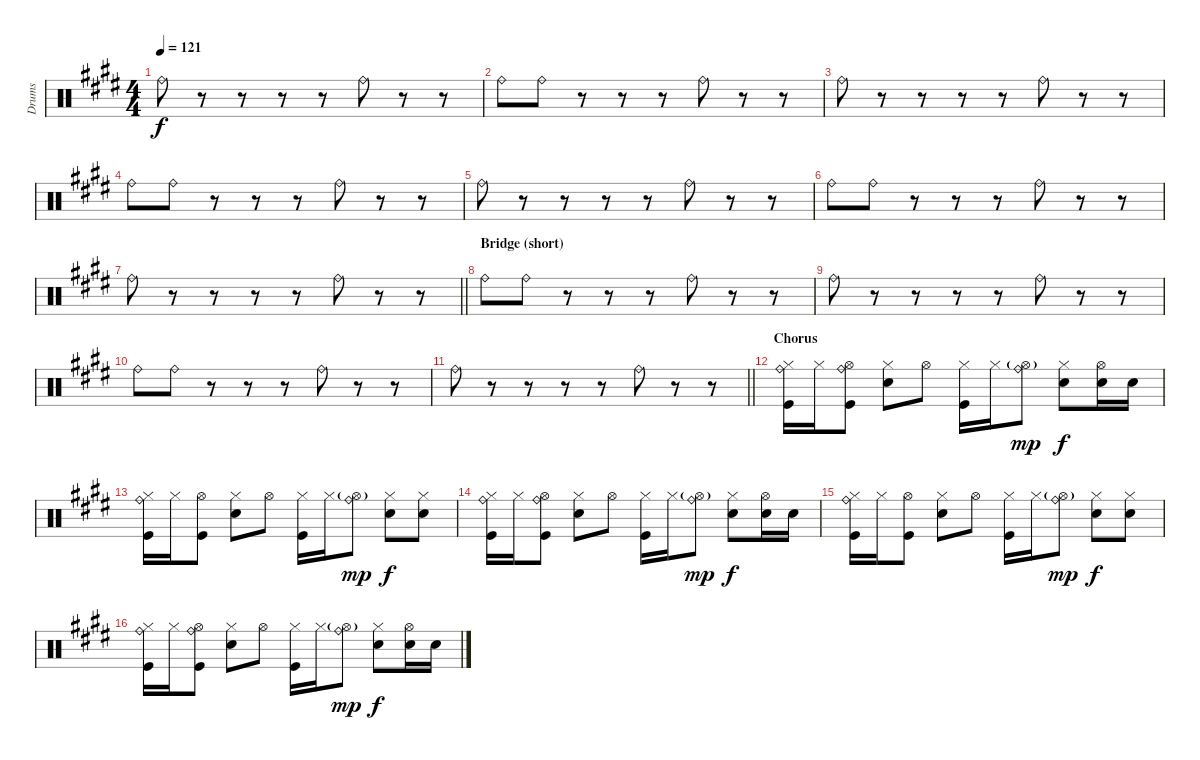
\track ("Drums" "Drums") {instrument percussion}
\staff {score}
\articulation defaults
\ts (4 4)
\tempo 121
\clef neutral
\ks c#minor "Ride (bell)".8{dy f}
r.8 r.8 r.8 r.8 "Ride (bell)".8 r.8 r.8 |
"Ride (bell)".8 "Ride (bell)".8 r.8 r.8 r.8 "Ride (bell)".8 r.8 r.8 |
"Ride (bell)".8 r.8 r.8 r.8 r.8 "Ride (bell)".8 r.8 r.8 |
"Ride (bell)".8 "Ride (bell)".8 r.8 r.8 r.8 "Ride (bell)".8 r.8 r.8 |
"Ride (bell)".8 r.8 r.8 r.8 r.8 "Ride (bell)".8 r.8 r.8 |
"Ride (bell)".8 "Ride (bell)".8 r.8 r.8 r.8 "Ride (bell)".8 r.8 r.8 |
\barLineRight lightlight "Ride (bell)".8
r.8 r.8 r.8 r.8 "Ride (bell)".8 r.8 r.8 |
\section ("" "Bridge (short)")
"Ride (bell)".8 "Ride (bell)".8 r.8 r.8 r.8 "Ride (bell)".8 r.8 r.8 |
"Ride (bell)".8 r.8 r.8 r.8 r.8 "Ride (bell)".8 r.8 r.8 |
"Ride (bell)".8 "Ride (bell)".8 r.8 r.8 r.8 "Ride (bell)".8 r.8 r.8 |
\barLineRight lightlight "Ride (bell)".8
r.8 r.8 r.8 r.8 "Ride (bell)".8 r.8 r.8 |
\section ("" "Chorus")
("Ride (bell)" "Hi-Hat (closed)" "Kick (hit)").16 "Hi-Hat (closed)".16 ("Ride (bell)" "Hi-Hat (open)" "Kick (hit)").8 ("Hi-Hat (closed)" "Electric Snare (hit)").8 "Hi-Hat (open)".8 ("Hi-Hat (closed)" "Kick (hit)").16 "Hi-Hat (closed)".16 ("Ride (bell)" "Hi-Hat (open)"{g}).8{dy mp} ("Hi-Hat (closed)" "Electric Snare (hit)").8{dy f} ("Hi-Hat (open)" "Electric Snare (hit)").16 "Electric Snare (hit)".16 |
("Ride (bell)" "Hi-Hat (closed)" "Kick (hit)").16 "Hi-Hat (closed)".16 ("Hi-Hat (open)" "Kick (hit)").8 ("Hi-Hat (closed)" "Electric Snare (hit)").8 "Hi-Hat (open)".8 ("Hi-Hat (closed)" "Kick (hit)").16 "Hi-Hat (closed)".16 ("Ride (bell)" "Hi-Hat (open)"{g}).8{dy mp} ("Hi-Hat (closed)" "Electric Snare (hit)").8{dy f} ("Hi-Hat (closed)" "Electric Snare (hit)").8 |
("Ride (bell)" "Hi-Hat (closed)" "Kick (hit)").16 "Hi-Hat (closed)".16 ("Ride (bell)" "Hi-Hat (open)" "Kick (hit)").8 ("Hi-Hat (closed)" "Electric Snare (hit)").8 "Hi-Hat (open)".8 ("Hi-Hat (closed)" "Kick (hit)").16 "Hi-Hat (closed)".16 ("Ride (bell)" "Hi-Hat (open)"{g}).8{dy mp} ("Hi-Hat (closed)" "Electric Snare (hit)").8{dy f} ("Hi-Hat (open)" "Electric Snare (hit)").16 "Electric Snare (hit)".16 |
("Ride (bell)" "Hi-Hat (closed)" "Kick (hit)").16 "Hi-Hat (closed)".16 ("Hi-Hat (open)" "Kick (hit)").8 ("Hi-Hat (closed)" "Electric Snare (hit)").8 "Hi-Hat (open)".8 ("Hi-Hat (closed)" "Kick (hit)").16 "Hi-Hat (closed)".16 ("Ride (bell)" "Hi-Hat (open)"{g}).8{dy mp} ("Hi-Hat (closed)" "Electric Snare (hit)").8{dy f} ("Hi-Hat (closed)" "Electric Snare (hit)").8 |
("Ride (bell)" "Hi-Hat (closed)" "Kick (hit)").16 "Hi-Hat (closed)".16 ("Ride (bell)" "Hi-Hat (open)" "Kick (hit)").8 ("Hi-Hat (closed)" "Electric Snare (hit)").8 "Hi-Hat (open)".8 ("Hi-Hat (closed)" "Kick (hit)").16 "Hi-Hat (closed)".16 ("Ride (bell)" "Hi-Hat (open)"{g}).8{dy mp} ("Hi-Hat (closed)" "Electric Snare (hit)").8{dy f} ("Hi-Hat (open)" "Electric Snare (hit)").16 "Electric Snare (hit)".16
